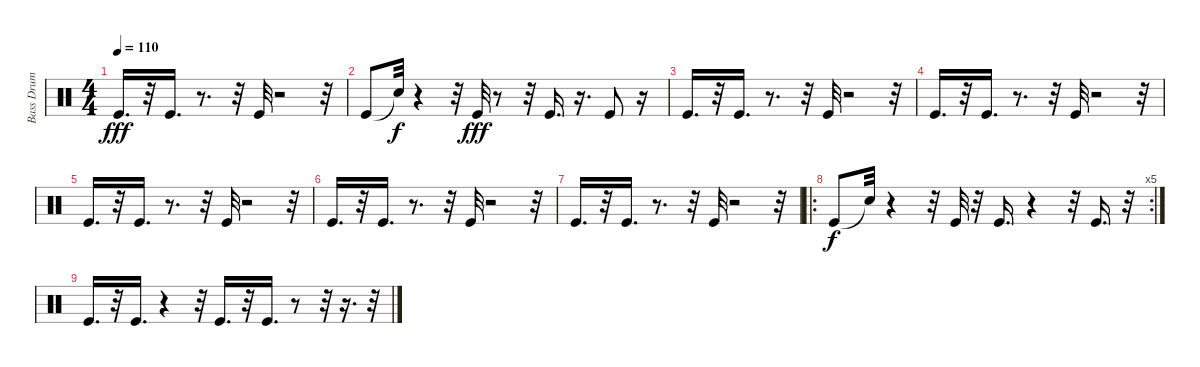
\track ("Bass Drum" "Bass Drum") {instrument percussion}
\staff {score}
\articulation defaults
\ts (4 4)
\tempo 110
\clef neutral
\ks c "Kick (hit)".16{d dy fff}
r.32 "Kick (hit)".16{d} r.8{d} r.32 "Kick (hit)".32 r.2 r.32 |
"Kick (hit)".8 "Snare (hit)"{t}.32{dy f} r.4 r.32 "Kick (hit)".32{dy fff} r.8 r.32 "Kick (hit)".16{d} r.16{d} "Kick (hit)".8 r.16 |
"Kick (hit)".16{d} r.32 "Kick (hit)".16{d} r.8{d} r.32 "Kick (hit)".32 r.2 r.32 |
"Kick (hit)".16{d} r.32 "Kick (hit)".16{d} r.8{d} r.32 "Kick (hit)".32 r.2 r.32 |
"Kick (hit)".16{d} r.32 "Kick (hit)".16{d} r.8{d} r.32 "Kick (hit)".32 r.2 r.32 |
"Kick (hit)".16{d} r.32 "Kick (hit)".16{d} r.8{d} r.32 "Kick (hit)".32 r.2 r.32 |
"Kick (hit)".16{d} r.32 "Kick (hit)".16{d} r.8{d} r.32 "Kick (hit)".32 r.2 r.32 |
\ro
\rc 5 "Kick (hit)".8{dy f} "Snare (hit)"{t}.32
r.4 r.32 "Kick (hit)".32 r.32 "Kick (hit)".16{d} r.4 r.32 "Kick (hit)".16{d} r.32 |
"Kick (hit)".16{d} r.32 "Kick (hit)".16{d} r.4 r.32 "Kick (hit)".16{d} r.32 "Kick (hit)".16{d} r.8 r.32 r.16{d} r.32
